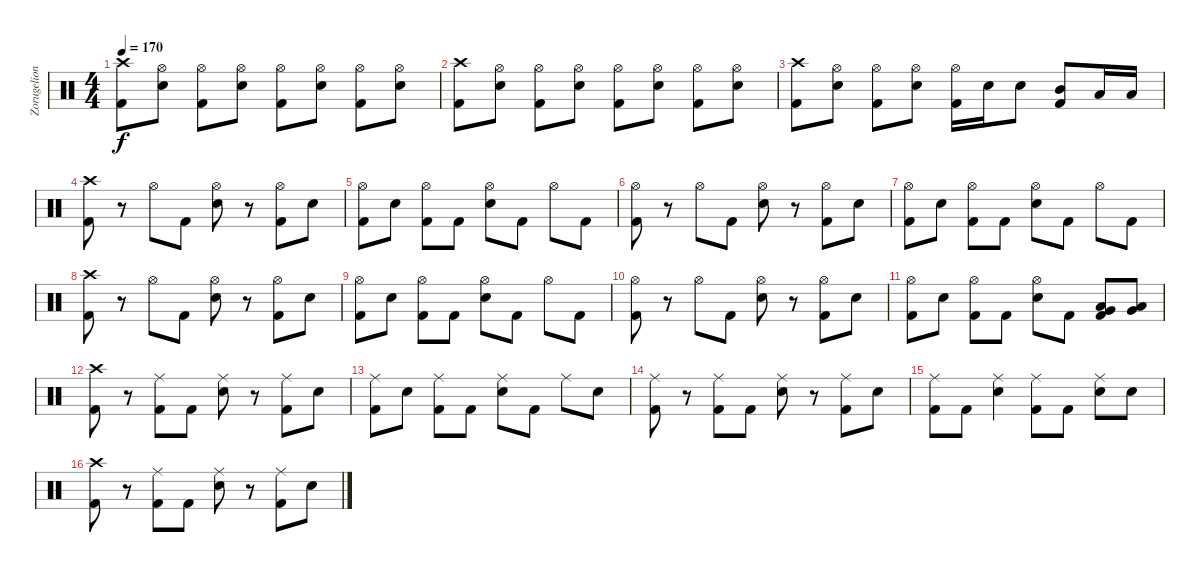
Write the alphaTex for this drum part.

\track ("Zorugelion" "Zorugelion") {instrument percussion}
\staff {score}
\articulation defaults
\ts (4 4)
\tempo 170
\clef neutral
\ks c
("Crash high (hit)" "Kick (hit) 2").8{dy f} ("Hi-Hat (open)" "Electric Snare (hit)").8 ("Hi-Hat (open)" "Kick (hit) 2").8 ("Hi-Hat (open)" "Electric Snare (hit)").8 ("Hi-Hat (open)" "Kick (hit) 2").8 ("Hi-Hat (open)" "Electric Snare (hit)").8 ("Hi-Hat (open)" "Kick (hit) 2").8 ("Hi-Hat (open)" "Electric Snare (hit)").8 |
("Crash high (hit)" "Kick (hit) 2").8 ("Hi-Hat (open)" "Electric Snare (hit)").8 ("Hi-Hat (open)" "Kick (hit) 2").8 ("Hi-Hat (open)" "Electric Snare (hit)").8 ("Hi-Hat (open)" "Kick (hit) 2").8 ("Hi-Hat (open)" "Electric Snare (hit)").8 ("Hi-Hat (open)" "Kick (hit) 2").8 ("Hi-Hat (open)" "Electric Snare (hit)").8 |
("Crash high (hit)" "Kick (hit) 2").8 ("Hi-Hat (open)" "Electric Snare (hit)").8 ("Hi-Hat (open)" "Kick (hit) 2").8 ("Hi-Hat (open)" "Electric Snare (hit)").8 ("Hi-Hat (open)" "Kick (hit) 2").16 "Electric Snare (hit)".16 "Electric Snare (hit)".8 ("Mid Tom (hit)" "Kick (hit) 2").8 "Low Tom (hit)".16 "Low Tom (hit)".16 |
("Crash high (hit)" "Kick (hit) 2").8 r.8 "Hi-Hat (open)".8 "Kick (hit) 2".8 ("Hi-Hat (open)" "Electric Snare (hit)").8 r.8 ("Hi-Hat (open)" "Kick (hit) 2").8 "Electric Snare (hit)".8 |
("Hi-Hat (open)" "Kick (hit) 2").8 "Electric Snare (hit)".8 ("Hi-Hat (open)" "Kick (hit) 2").8 "Kick (hit) 2".8 ("Hi-Hat (open)" "Electric Snare (hit)").8 "Kick (hit) 2".8 "Hi-Hat (open)".8 "Kick (hit) 2".8 |
("Hi-Hat (open)" "Kick (hit) 2").8 r.8 "Hi-Hat (open)".8 "Kick (hit) 2".8 ("Hi-Hat (open)" "Electric Snare (hit)").8 r.8 ("Hi-Hat (open)" "Kick (hit) 2").8 "Electric Snare (hit)".8 |
("Hi-Hat (open)" "Kick (hit) 2").8 "Electric Snare (hit)".8 ("Hi-Hat (open)" "Kick (hit) 2").8 "Kick (hit) 2".8 ("Hi-Hat (open)" "Electric Snare (hit)").8 "Kick (hit) 2".8 "Hi-Hat (open)".8 "Kick (hit) 2".8 |
("Crash high (hit)" "Kick (hit) 2").8 r.8 "Hi-Hat (open)".8 "Kick (hit) 2".8 ("Hi-Hat (open)" "Electric Snare (hit)").8 r.8 ("Hi-Hat (open)" "Kick (hit) 2").8 "Electric Snare (hit)".8 |
("Hi-Hat (open)" "Kick (hit) 2").8 "Electric Snare (hit)".8 ("Hi-Hat (open)" "Kick (hit) 2").8 "Kick (hit) 2".8 ("Hi-Hat (open)" "Electric Snare (hit)").8 "Kick (hit) 2".8 "Hi-Hat (open)".8 "Kick (hit) 2".8 |
("Hi-Hat (open)" "Kick (hit) 2").8 r.8 "Hi-Hat (open)".8 "Kick (hit) 2".8 ("Hi-Hat (open)" "Electric Snare (hit)").8 r.8 ("Hi-Hat (open)" "Kick (hit) 2").8 "Electric Snare (hit)".8 |
("Hi-Hat (open)" "Kick (hit) 2").8 "Electric Snare (hit)".8 ("Hi-Hat (open)" "Kick (hit) 2").8 "Kick (hit) 2".8 ("Hi-Hat (open)" "Electric Snare (hit)").8 "Kick (hit) 2".8 ("Very Low Tom (hit)" "Low Tom (hit)" "Kick (hit) 2").8 ("Very Low Tom (hit)" "Low Tom (hit)").8 |
("Crash high (hit)" "Kick (hit) 2").8 r.8 ("Ride (middle)" "Kick (hit) 2").8 "Kick (hit) 2".8 ("Ride (middle)" "Electric Snare (hit)").8 r.8 ("Ride (middle)" "Kick (hit) 2").8 "Electric Snare (hit)".8 |
("Ride (middle)" "Kick (hit) 2").8 "Electric Snare (hit)".8 ("Ride (middle)" "Kick (hit) 2").8 "Kick (hit) 2".8 ("Ride (middle)" "Electric Snare (hit)").8 "Kick (hit) 2".8 "Ride (middle)".8 "Electric Snare (hit)".8 |
("Ride (middle)" "Kick (hit) 2").8 r.8 ("Ride (middle)" "Kick (hit) 2").8 "Kick (hit) 2".8 ("Ride (middle)" "Electric Snare (hit)").8 r.8 ("Ride (middle)" "Kick (hit) 2").8 "Electric Snare (hit)".8 |
("Ride (middle)" "Kick (hit) 2").8 "Kick (hit) 2".8 ("Ride (middle)" "Electric Snare (hit)").4 ("Ride (middle)" "Kick (hit) 2").8 "Kick (hit) 2".8 ("Ride (middle)" "Electric Snare (hit)").8 "Electric Snare (hit)".8 |
("Crash high (hit)" "Kick (hit) 2").8 r.8 ("Ride (middle)" "Kick (hit) 2").8 "Kick (hit) 2".8 ("Ride (middle)" "Electric Snare (hit)").8 r.8 ("Ride (middle)" "Kick (hit) 2").8 "Electric Snare (hit)".8
